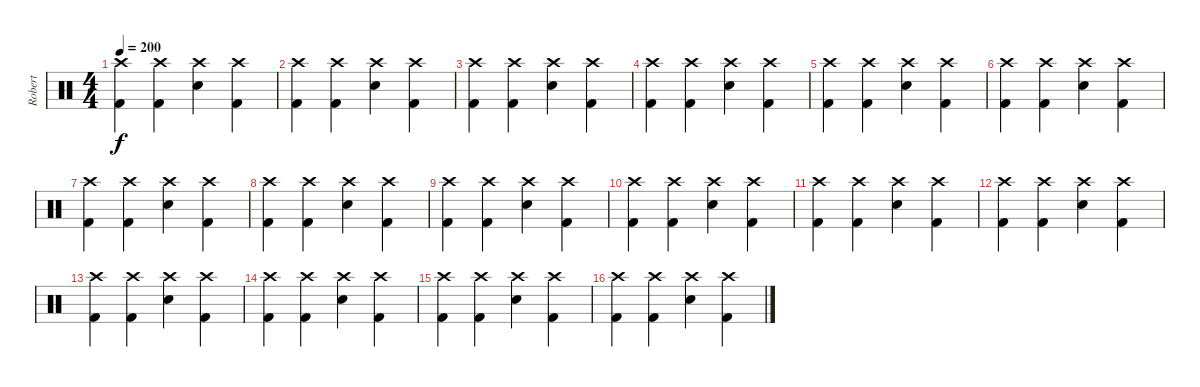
\track ("Robert" "Robert") {instrument percussion}
\staff {score}
\articulation defaults
\ts (4 4)
\tempo 200
\clef neutral
\ks c
("Crash high (hit)" "Kick (hit) 2").4{dy f} ("Crash high (hit)" "Kick (hit) 2").4 ("Crash high (hit)" "Electric Snare (hit)").4 ("Crash high (hit)" "Kick (hit) 2").4 |
("Crash high (hit)" "Kick (hit) 2").4 ("Crash high (hit)" "Kick (hit) 2").4 ("Crash high (hit)" "Electric Snare (hit)").4 ("Crash high (hit)" "Kick (hit) 2").4 |
("Crash high (hit)" "Kick (hit) 2").4 ("Crash high (hit)" "Kick (hit) 2").4 ("Crash high (hit)" "Electric Snare (hit)").4 ("Crash high (hit)" "Kick (hit) 2").4 |
("Crash high (hit)" "Kick (hit) 2").4 ("Crash high (hit)" "Kick (hit) 2").4 ("Crash high (hit)" "Electric Snare (hit)").4 ("Crash high (hit)" "Kick (hit) 2").4 |
("Crash high (hit)" "Kick (hit) 2").4 ("Crash high (hit)" "Kick (hit) 2").4 ("Crash high (hit)" "Electric Snare (hit)").4 ("Crash high (hit)" "Kick (hit) 2").4 |
("Crash high (hit)" "Kick (hit) 2").4 ("Crash high (hit)" "Kick (hit) 2").4 ("Crash high (hit)" "Electric Snare (hit)").4 ("Crash high (hit)" "Kick (hit) 2").4 |
("Crash high (hit)" "Kick (hit) 2").4 ("Crash high (hit)" "Kick (hit) 2").4 ("Crash high (hit)" "Electric Snare (hit)").4 ("Crash high (hit)" "Kick (hit) 2").4 |
("Crash high (hit)" "Kick (hit) 2").4 ("Crash high (hit)" "Kick (hit) 2").4 ("Crash high (hit)" "Electric Snare (hit)").4 ("Crash high (hit)" "Kick (hit) 2").4 |
("Crash high (hit)" "Kick (hit) 2").4 ("Crash high (hit)" "Kick (hit) 2").4 ("Crash high (hit)" "Electric Snare (hit)").4 ("Crash high (hit)" "Kick (hit) 2").4 |
("Crash high (hit)" "Kick (hit) 2").4 ("Crash high (hit)" "Kick (hit) 2").4 ("Crash high (hit)" "Electric Snare (hit)").4 ("Crash high (hit)" "Kick (hit) 2").4 |
("Crash high (hit)" "Kick (hit) 2").4 ("Crash high (hit)" "Kick (hit) 2").4 ("Crash high (hit)" "Electric Snare (hit)").4 ("Crash high (hit)" "Kick (hit) 2").4 |
("Crash high (hit)" "Kick (hit) 2").4 ("Crash high (hit)" "Kick (hit) 2").4 ("Crash high (hit)" "Electric Snare (hit)").4 ("Crash high (hit)" "Kick (hit) 2").4 |
("Crash high (hit)" "Kick (hit) 2").4 ("Crash high (hit)" "Kick (hit) 2").4 ("Crash high (hit)" "Electric Snare (hit)").4 ("Crash high (hit)" "Kick (hit) 2").4 |
("Crash high (hit)" "Kick (hit) 2").4 ("Crash high (hit)" "Kick (hit) 2").4 ("Crash high (hit)" "Electric Snare (hit)").4 ("Crash high (hit)" "Kick (hit) 2").4 |
("Crash high (hit)" "Kick (hit) 2").4 ("Crash high (hit)" "Kick (hit) 2").4 ("Crash high (hit)" "Electric Snare (hit)").4 ("Crash high (hit)" "Kick (hit) 2").4 |
("Crash high (hit)" "Kick (hit) 2").4 ("Crash high (hit)" "Kick (hit) 2").4 ("Crash high (hit)" "Electric Snare (hit)").4 ("Crash high (hit)" "Kick (hit) 2").4
